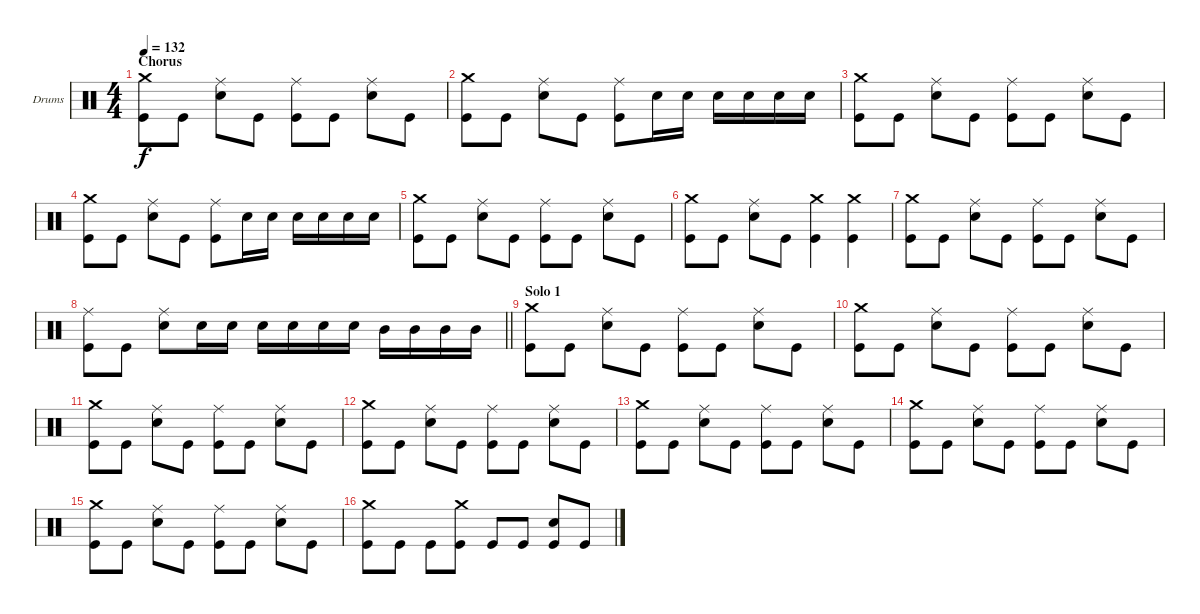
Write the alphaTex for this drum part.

\bracketExtendMode groupsimilarinstruments
\firstSystemTrackNameOrientation horizontal
\otherSystemsTrackNameOrientation horizontal
\track ("Drums" "Drums") {instrument percussion}
\staff {score}
\articulation defaults
\ts (4 4)
\section ("" "Chorus")
\tempo 132
\clef neutral
\ks c
("Crash medium (hit)" "Kick (hit)").8{dy f} "Kick (hit)".8 ("Ride (middle)" "Snare (hit) 2").8 "Kick (hit)".8 ("Ride (middle)" "Kick (hit)").8 "Kick (hit)".8 ("Ride (middle)" "Snare (hit) 2").8 "Kick (hit)".8 |
("Crash medium (hit)" "Kick (hit)").8 "Kick (hit)".8 ("Ride (middle)" "Snare (hit) 2").8 "Kick (hit)".8 ("Ride (middle)" "Kick (hit)").8 "Snare (hit) 2".16 "Snare (hit) 2".16 "Snare (hit) 2".16 "Snare (hit) 2".16 "Snare (hit) 2".16 "Snare (hit) 2".16 |
("Crash medium (hit)" "Kick (hit)").8 "Kick (hit)".8 ("Ride (middle)" "Snare (hit) 2").8 "Kick (hit)".8 ("Ride (middle)" "Kick (hit)").8 "Kick (hit)".8 ("Ride (middle)" "Snare (hit) 2").8 "Kick (hit)".8 |
("Crash medium (hit)" "Kick (hit)").8 "Kick (hit)".8 ("Ride (middle)" "Snare (hit) 2").8 "Kick (hit)".8 ("Ride (middle)" "Kick (hit)").8 "Snare (hit) 2".16 "Snare (hit) 2".16 "Snare (hit) 2".16 "Snare (hit) 2".16 "Snare (hit) 2".16 "Snare (hit) 2".16 |
("Crash medium (hit)" "Kick (hit)").8 "Kick (hit)".8 ("Ride (middle)" "Snare (hit) 2").8 "Kick (hit)".8 ("Ride (middle)" "Kick (hit)").8 "Kick (hit)".8 ("Ride (middle)" "Snare (hit) 2").8 "Kick (hit)".8 |
("Crash medium (hit)" "Kick (hit)").8 "Kick (hit)".8 ("Ride (middle)" "Snare (hit) 2").8 "Kick (hit)".8 ("Crash medium (hit)" "Kick (hit)").4 ("Crash medium (hit)" "Kick (hit)").4 |
("Crash medium (hit)" "Kick (hit)").8 "Kick (hit)".8 ("Ride (middle)" "Snare (hit) 2").8 "Kick (hit)".8 ("Ride (middle)" "Kick (hit)").8 "Kick (hit)".8 ("Ride (middle)" "Snare (hit) 2").8 "Kick (hit)".8 |
\barLineRight lightlight
("Ride (middle)" "Kick (hit)").8 "Kick (hit)".8 ("Ride (middle)" "Snare (hit) 2").8 "Snare (hit) 2".16 "Snare (hit) 2".16 "Snare (hit) 2".16 "Snare (hit) 2".16 "Snare (hit) 2".16 "Snare (hit) 2".16 "Mid Tom (hit)".16 "Mid Tom (hit)".16 "Mid Tom (hit)".16 "Mid Tom (hit)".16 |
\section ("" "Solo 1")
("Crash medium (hit)" "Kick (hit)").8 "Kick (hit)".8 ("Ride (middle)" "Snare (hit) 2").8 "Kick (hit)".8 ("Ride (middle)" "Kick (hit)").8 "Kick (hit)".8 ("Ride (middle)" "Snare (hit) 2").8 "Kick (hit)".8 |
("Crash medium (hit)" "Kick (hit)").8 "Kick (hit)".8 ("Ride (middle)" "Snare (hit) 2").8 "Kick (hit)".8 ("Ride (middle)" "Kick (hit)").8 "Kick (hit)".8 ("Ride (middle)" "Snare (hit) 2").8 "Kick (hit)".8 |
("Crash medium (hit)" "Kick (hit)").8 "Kick (hit)".8 ("Ride (middle)" "Snare (hit) 2").8 "Kick (hit)".8 ("Ride (middle)" "Kick (hit)").8 "Kick (hit)".8 ("Ride (middle)" "Snare (hit) 2").8 "Kick (hit)".8 |
("Crash medium (hit)" "Kick (hit)").8 "Kick (hit)".8 ("Ride (middle)" "Snare (hit) 2").8 "Kick (hit)".8 ("Ride (middle)" "Kick (hit)").8 "Kick (hit)".8 ("Ride (middle)" "Snare (hit) 2").8 "Kick (hit)".8 |
("Crash medium (hit)" "Kick (hit)").8 "Kick (hit)".8 ("Ride (middle)" "Snare (hit) 2").8 "Kick (hit)".8 ("Ride (middle)" "Kick (hit)").8 "Kick (hit)".8 ("Ride (middle)" "Snare (hit) 2").8 "Kick (hit)".8 |
("Crash medium (hit)" "Kick (hit)").8 "Kick (hit)".8 ("Ride (middle)" "Snare (hit) 2").8 "Kick (hit)".8 ("Ride (middle)" "Kick (hit)").8 "Kick (hit)".8 ("Ride (middle)" "Snare (hit) 2").8 "Kick (hit)".8 |
("Crash medium (hit)" "Kick (hit)").8 "Kick (hit)".8 ("Ride (middle)" "Snare (hit) 2").8 "Kick (hit)".8 ("Ride (middle)" "Kick (hit)").8 "Kick (hit)".8 ("Ride (middle)" "Snare (hit) 2").8 "Kick (hit)".8 |
("Crash medium (hit)" "Kick (hit)").8 "Kick (hit)".8 "Kick (hit)".8 ("Crash medium (hit)" "Kick (hit)").8 "Kick (hit)".8 "Kick (hit)".8 ("Snare (hit) 2" "Kick (hit)").8 "Kick (hit)".8
